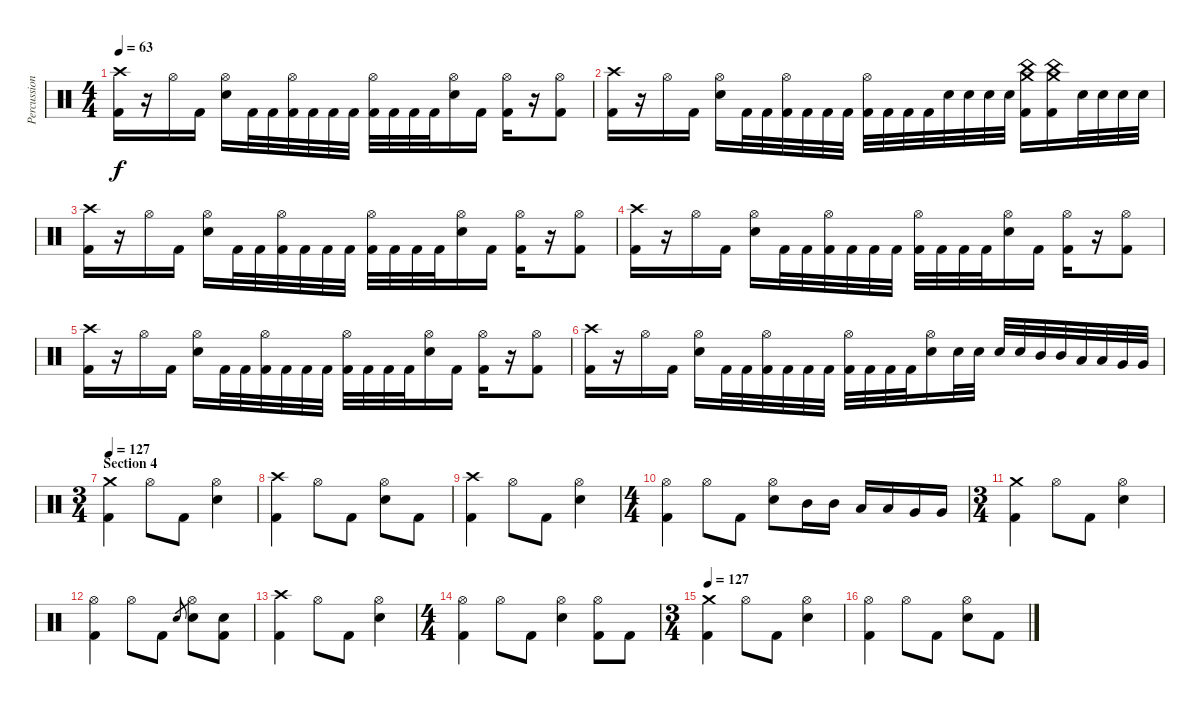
\track ("Percussion" "Percussion") {instrument percussion}
\staff {score}
\articulation defaults
\ts (4 4)
\tempo 63
\clef neutral
\ks c
("Crash high (hit)" "Kick (hit) 2").16{dy f} r.16 "Hi-Hat (open)".16 "Kick (hit) 2".16 ("Hi-Hat (open)" "Electric Snare (hit)").16 "Kick (hit) 2".32 "Kick (hit) 2".32 ("Hi-Hat (open)" "Kick (hit) 2").32 "Kick (hit) 2".32 "Kick (hit) 2".32 "Kick (hit) 2".32 ("Hi-Hat (open)" "Kick (hit) 2").32 "Kick (hit) 2".32 "Kick (hit) 2".32 "Kick (hit) 2".32 ("Hi-Hat (open)" "Electric Snare (hit)").16 "Kick (hit) 2".16 ("Hi-Hat (open)" "Kick (hit) 2").16 r.16 ("Hi-Hat (open)" "Kick (hit) 2").8 |
("Crash high (hit)" "Kick (hit) 2").16 r.16 "Hi-Hat (open)".16 "Kick (hit) 2".16 ("Hi-Hat (open)" "Electric Snare (hit)").16 "Kick (hit) 2".32 "Kick (hit) 2".32 ("Hi-Hat (open)" "Kick (hit) 2").32 "Kick (hit) 2".32 "Kick (hit) 2".32 "Kick (hit) 2".32 ("Hi-Hat (open)" "Kick (hit) 2").32 "Kick (hit) 2".32 "Kick (hit) 2".32 "Kick (hit) 2".32 "Electric Snare (hit)".32 "Electric Snare (hit)".32 "Electric Snare (hit)".32 "Electric Snare (hit)".32 ("Crash medium (hit)" "China (hit)" "Kick (hit) 2").16 ("Crash medium (hit)" "China (hit)" "Kick (hit) 2").16 "Electric Snare (hit)".32 "Electric Snare (hit)".32 "Electric Snare (hit)".32 "Electric Snare (hit)".32 |
("Crash high (hit)" "Kick (hit) 2").16 r.16 "Hi-Hat (open)".16 "Kick (hit) 2".16 ("Hi-Hat (open)" "Electric Snare (hit)").16 "Kick (hit) 2".32 "Kick (hit) 2".32 ("Hi-Hat (open)" "Kick (hit) 2").32 "Kick (hit) 2".32 "Kick (hit) 2".32 "Kick (hit) 2".32 ("Hi-Hat (open)" "Kick (hit) 2").32 "Kick (hit) 2".32 "Kick (hit) 2".32 "Kick (hit) 2".32 ("Hi-Hat (open)" "Electric Snare (hit)").16 "Kick (hit) 2".16 ("Hi-Hat (open)" "Kick (hit) 2").16 r.16 ("Hi-Hat (open)" "Kick (hit) 2").8 |
("Crash high (hit)" "Kick (hit) 2").16 r.16 "Hi-Hat (open)".16 "Kick (hit) 2".16 ("Hi-Hat (open)" "Electric Snare (hit)").16 "Kick (hit) 2".32 "Kick (hit) 2".32 ("Hi-Hat (open)" "Kick (hit) 2").32 "Kick (hit) 2".32 "Kick (hit) 2".32 "Kick (hit) 2".32 ("Hi-Hat (open)" "Kick (hit) 2").32 "Kick (hit) 2".32 "Kick (hit) 2".32 "Kick (hit) 2".32 ("Hi-Hat (open)" "Electric Snare (hit)").16 "Kick (hit) 2".16 ("Hi-Hat (open)" "Kick (hit) 2").16 r.16 ("Hi-Hat (open)" "Kick (hit) 2").8 |
("Crash high (hit)" "Kick (hit) 2").16 r.16 "Hi-Hat (open)".16 "Kick (hit) 2".16 ("Hi-Hat (open)" "Electric Snare (hit)").16 "Kick (hit) 2".32 "Kick (hit) 2".32 ("Hi-Hat (open)" "Kick (hit) 2").32 "Kick (hit) 2".32 "Kick (hit) 2".32 "Kick (hit) 2".32 ("Hi-Hat (open)" "Kick (hit) 2").32 "Kick (hit) 2".32 "Kick (hit) 2".32 "Kick (hit) 2".32 ("Hi-Hat (open)" "Electric Snare (hit)").16 "Kick (hit) 2".16 ("Hi-Hat (open)" "Kick (hit) 2").16 r.16 ("Hi-Hat (open)" "Kick (hit) 2").8 |
("Crash high (hit)" "Kick (hit) 2").16 r.16 "Hi-Hat (open)".16 "Kick (hit) 2".16 ("Hi-Hat (open)" "Electric Snare (hit)").16 "Kick (hit) 2".32 "Kick (hit) 2".32 ("Hi-Hat (open)" "Kick (hit) 2").32 "Kick (hit) 2".32 "Kick (hit) 2".32 "Kick (hit) 2".32 ("Hi-Hat (open)" "Kick (hit) 2").32 "Kick (hit) 2".32 "Kick (hit) 2".32 "Kick (hit) 2".32 ("Hi-Hat (open)" "Electric Snare (hit)").16 "Electric Snare (hit)".32 "Electric Snare (hit)".32 "Electric Snare (hit)".32 "Electric Snare (hit)".32 "Mid Tom (hit)".32 "Mid Tom (hit)".32 "Low Tom (hit)".32 "Low Tom (hit)".32 "Very Low Tom (hit)".32 "Very Low Tom (hit)".32 |
\ts (3 4)
\section ("" "Section 4")
\tempo 127
("Crash medium (hit)" "Kick (hit) 2").4 "Hi-Hat (open)".8 "Kick (hit) 2".8 ("Hi-Hat (open)" "Electric Snare (hit)").4 |
("Crash high (hit)" "Kick (hit) 2").4 "Hi-Hat (open)".8 "Kick (hit) 2".8 ("Hi-Hat (open)" "Electric Snare (hit)").8 "Kick (hit) 2".8 |
("Crash high (hit)" "Kick (hit) 2").4 "Hi-Hat (open)".8 "Kick (hit) 2".8 ("Hi-Hat (open)" "Electric Snare (hit)").4 |
\ts (4 4)
("Hi-Hat (open)" "Kick (hit) 2").4 "Hi-Hat (open)".8 "Kick (hit) 2".8 ("Hi-Hat (open)" "Electric Snare (hit)").8 "Mid Tom (hit)".16 "Mid Tom (hit)".16 "Low Tom (hit)".16 "Low Tom (hit)".16 "Very Low Tom (hit)".16 "Very Low Tom (hit)".16 |
\ts (3 4)
("Crash medium (hit)" "Kick (hit) 2").4 "Hi-Hat (open)".8 "Kick (hit) 2".8 ("Hi-Hat (open)" "Electric Snare (hit)").4 |
("Hi-Hat (open)" "Kick (hit) 2").4 "Hi-Hat (open)".8 "Kick (hit) 2".8 "Electric Snare (hit)".8{gr} ("Hi-Hat (open)" "Electric Snare (hit)").8 ("Electric Snare (hit)" "Kick (hit) 2").8 |
("Crash high (hit)" "Kick (hit) 2").4 "Hi-Hat (open)".8 "Kick (hit) 2".8 ("Hi-Hat (open)" "Electric Snare (hit)").4 |
\ts (4 4)
("Hi-Hat (open)" "Kick (hit) 2").4 "Hi-Hat (open)".8 "Kick (hit) 2".8 ("Hi-Hat (open)" "Electric Snare (hit)").4 ("Hi-Hat (open)" "Kick (hit) 2").8 "Kick (hit) 2".8 |
\ts (3 4)
\tempo 127
("Crash medium (hit)" "Kick (hit) 2").4 "Hi-Hat (open)".8 "Kick (hit) 2".8 ("Hi-Hat (open)" "Electric Snare (hit)").4 |
("Hi-Hat (open)" "Kick (hit) 2").4 "Hi-Hat (open)".8 "Kick (hit) 2".8 ("Hi-Hat (open)" "Electric Snare (hit)").8 "Kick (hit) 2".8
